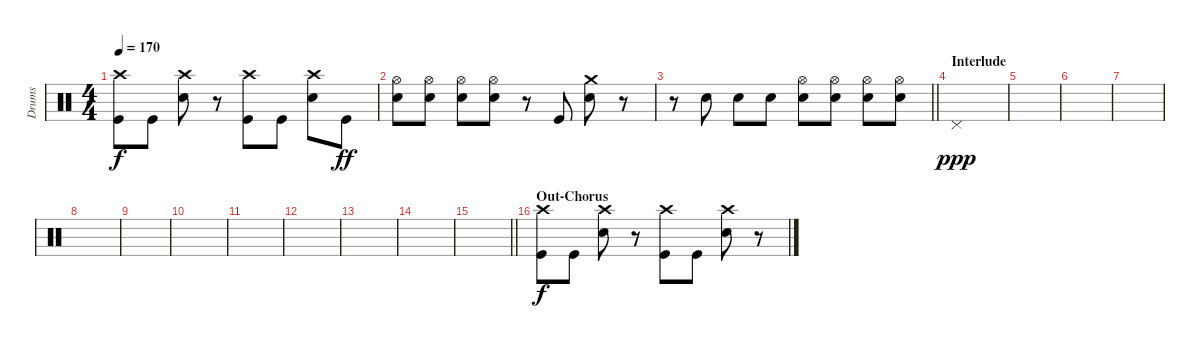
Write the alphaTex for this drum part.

\track ("Drums" "Drums") {instrument percussion}
\staff {score}
\articulation defaults
\ts (4 4)
\tempo 170
\clef neutral
\ks c
("Crash high (hit)" "Kick (hit)").8{dy f} "Kick (hit)".8 ("Crash high (hit)" "Snare (hit) 2").8 r.8 ("Crash high (hit)" "Kick (hit)").8 "Kick (hit)".8 ("Crash high (hit)" "Snare (hit) 2").8 "Kick (hit)".8{dy ff} |
("Hi-Hat (open)" "Snare (hit) 2").8 ("Hi-Hat (open)" "Snare (hit) 2").8 ("Hi-Hat (open)" "Snare (hit) 2").8 ("Hi-Hat (open)" "Snare (hit) 2").8 r.8 "Kick (hit)".8 ("Crash medium (hit)" "Snare (hit) 2").8 r.8 |
\barLineRight lightlight
r.8 "Snare (hit) 2".8 "Snare (hit) 2".8 "Snare (hit) 2".8 ("Hi-Hat (open)" "Snare (hit) 2").8 ("Hi-Hat (open)" "Snare (hit) 2").8 ("Hi-Hat (open)" "Snare (hit) 2").8 ("Hi-Hat (open)" "Snare (hit) 2").8 |
\section ("" "Interlude")
"Pedal Hi-Hat (hit)".1{dy ppp} |
|
|
|
|
|
|
|
|
|
|
\barLineRight lightlight
|
\section ("" "Out-Chorus")
("Crash high (hit)" "Kick (hit)").8{dy f} "Kick (hit)".8 ("Crash high (hit)" "Snare (hit) 2").8 r.8 ("Crash high (hit)" "Kick (hit)").8 "Kick (hit)".8 ("Crash high (hit)" "Snare (hit) 2").8 r.8
